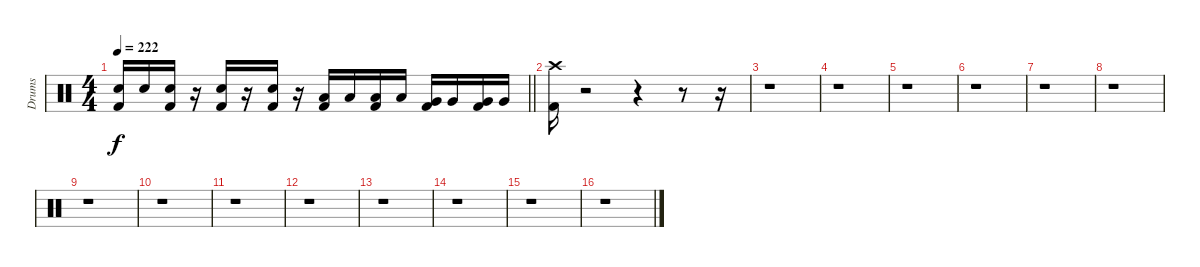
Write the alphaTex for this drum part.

\track ("Drums" "Drums") {instrument percussion}
\staff {score}
\articulation defaults
\ts (4 4)
\tempo 222
\clef neutral
\barLineRight lightlight
\ks c
("Kick (hit) 2" "Snare (hit) 2").16{dy f} "Snare (hit) 2".16 ("Kick (hit) 2" "Snare (hit) 2").16 r.16 ("Kick (hit) 2" "Snare (hit) 2").16 r.16 ("Kick (hit) 2" "Snare (hit) 2").16 r.16 ("Kick (hit) 2" "Low Tom (hit)").16 "Low Tom (hit)".16 ("Kick (hit) 2" "Low Tom (hit)").16 "Low Tom (hit)".16 ("Kick (hit) 2" "Very Low Tom (hit)").16 "Very Low Tom (hit)".16 ("Kick (hit) 2" "Very Low Tom (hit)").16 "Very Low Tom (hit)".16 |
\section ("" " ")
("Kick (hit) 2" "Crash high (hit)").16 r.2 r.4 r.8 r.16 |
r.1 |
r.1 |
r.1 |
r.1 |
r.1 |
r.1 |
r.1 |
r.1 |
r.1 |
r.1 |
r.1 |
r.1 |
r.1 |
r.1
